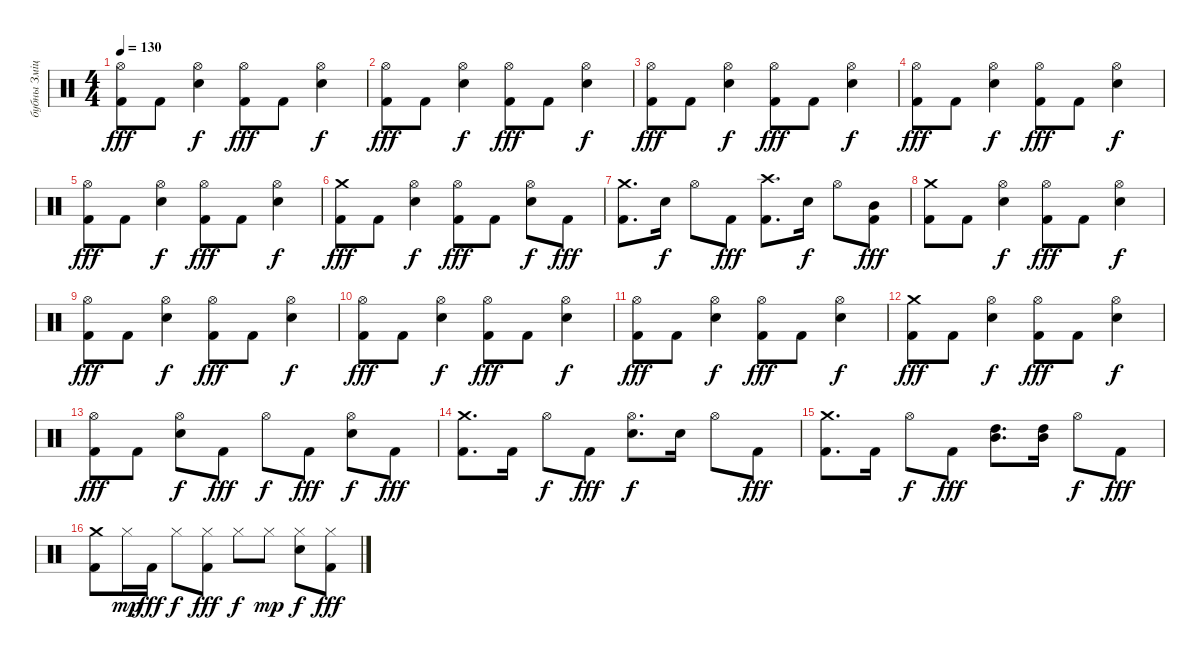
\track ("бубны Змiцер" "бубны Змiц") {instrument percussion}
\staff {score}
\articulation defaults
\ts (4 4)
\tempo 130
\clef neutral
\ks c
("Hi-Hat (open)" "Kick (hit) 2").8{dy fff} "Kick (hit) 2".8 ("Hi-Hat (open)" "Electric Snare (hit)").4{dy f} ("Hi-Hat (open)" "Kick (hit) 2").8{dy fff} "Kick (hit) 2".8 ("Hi-Hat (open)" "Electric Snare (hit)").4{dy f} |
("Hi-Hat (open)" "Kick (hit) 2").8{dy fff} "Kick (hit) 2".8 ("Hi-Hat (open)" "Electric Snare (hit)").4{dy f} ("Hi-Hat (open)" "Kick (hit) 2").8{dy fff} "Kick (hit) 2".8 ("Hi-Hat (open)" "Electric Snare (hit)").4{dy f} |
("Hi-Hat (open)" "Kick (hit) 2").8{dy fff} "Kick (hit) 2".8 ("Hi-Hat (open)" "Electric Snare (hit)").4{dy f} ("Hi-Hat (open)" "Kick (hit) 2").8{dy fff} "Kick (hit) 2".8 ("Hi-Hat (open)" "Electric Snare (hit)").4{dy f} |
("Hi-Hat (open)" "Kick (hit) 2").8{dy fff} "Kick (hit) 2".8 ("Hi-Hat (open)" "Electric Snare (hit)").4{dy f} ("Hi-Hat (open)" "Kick (hit) 2").8{dy fff} "Kick (hit) 2".8 ("Hi-Hat (open)" "Electric Snare (hit)").4{dy f} |
("Hi-Hat (open)" "Kick (hit) 2").8{dy fff} "Kick (hit) 2".8 ("Hi-Hat (open)" "Electric Snare (hit)").4{dy f} ("Hi-Hat (open)" "Kick (hit) 2").8{dy fff} "Kick (hit) 2".8 ("Hi-Hat (open)" "Electric Snare (hit)").4{dy f} |
("Crash medium (hit)" "Kick (hit) 2").8{dy fff} "Kick (hit) 2".8 ("Hi-Hat (open)" "Electric Snare (hit)").4{dy f} ("Hi-Hat (open)" "Kick (hit) 2").8{dy fff} "Kick (hit) 2".8 ("Hi-Hat (open)" "Electric Snare (hit)").8{dy f} "Kick (hit) 2".8{dy fff} |
("Crash medium (hit)" "Kick (hit) 2").8{d} "Electric Snare (hit)".16{dy f} "Hi-Hat (open)".8 "Kick (hit) 2".8{dy fff} ("Crash high (hit)" "Kick (hit) 2").8{d} "Electric Snare (hit)".16{dy f} "Hi-Hat (open)".8 ("Mid Tom (hit)" "Kick (hit) 2").8{dy fff} |
("Crash medium (hit)" "Kick (hit) 2").8 "Kick (hit) 2".8 ("Hi-Hat (open)" "Electric Snare (hit)").4{dy f} ("Hi-Hat (open)" "Kick (hit) 2").8{dy fff} "Kick (hit) 2".8 ("Hi-Hat (open)" "Electric Snare (hit)").4{dy f} |
("Hi-Hat (open)" "Kick (hit) 2").8{dy fff} "Kick (hit) 2".8 ("Hi-Hat (open)" "Electric Snare (hit)").4{dy f} ("Hi-Hat (open)" "Kick (hit) 2").8{dy fff} "Kick (hit) 2".8 ("Hi-Hat (open)" "Electric Snare (hit)").4{dy f} |
("Hi-Hat (open)" "Kick (hit) 2").8{dy fff} "Kick (hit) 2".8 ("Hi-Hat (open)" "Electric Snare (hit)").4{dy f} ("Hi-Hat (open)" "Kick (hit) 2").8{dy fff} "Kick (hit) 2".8 ("Hi-Hat (open)" "Electric Snare (hit)").4{dy f} |
("Hi-Hat (open)" "Kick (hit) 2").8{dy fff} "Kick (hit) 2".8 ("Hi-Hat (open)" "Electric Snare (hit)").4{dy f} ("Hi-Hat (open)" "Kick (hit) 2").8{dy fff} "Kick (hit) 2".8 ("Hi-Hat (open)" "Electric Snare (hit)").4{dy f} |
("Crash medium (hit)" "Kick (hit) 2").8{dy fff} "Kick (hit) 2".8 ("Hi-Hat (open)" "Electric Snare (hit)").4{dy f} ("Hi-Hat (open)" "Kick (hit) 2").8{dy fff} "Kick (hit) 2".8 ("Hi-Hat (open)" "Electric Snare (hit)").4{dy f} |
("Hi-Hat (open)" "Kick (hit) 2").8{dy fff} "Kick (hit) 2".8 ("Hi-Hat (open)" "Electric Snare (hit)").8{dy f} "Kick (hit) 2".8{dy fff} "Hi-Hat (open)".8{dy f} "Kick (hit) 2".8{dy fff} ("Hi-Hat (open)" "Electric Snare (hit)").8{dy f} "Kick (hit) 2".8{dy fff} |
("Crash medium (hit)" "Kick (hit) 2").8{d} "Kick (hit) 2".16 "Hi-Hat (open)".8{dy f} "Kick (hit) 2".8{dy fff} ("Hi-Hat (open)" "Electric Snare (hit)").8{d dy f} "Electric Snare (hit)".16 "Hi-Hat (open)".8 "Kick (hit) 2".8{dy fff} |
("Crash medium (hit)" "Kick (hit) 2").8{d} "Kick (hit) 2".16 "Hi-Hat (open)".8{dy f} "Kick (hit) 2".8{dy fff} ("Mid Tom (hit)" "High Tom (hit)").8{d} ("Mid Tom (hit)" "High Tom (hit)").16 "Hi-Hat (open)".8{dy f} "Kick (hit) 2".8{dy fff} |
("Crash medium (hit)" "Kick (hit) 2").8 "Hi-Hat (closed)".16{dy mp} "Kick (hit) 2".16{dy fff} "Hi-Hat (closed)".8{dy f} ("Hi-Hat (closed)" "Kick (hit) 2").8{dy fff} "Hi-Hat (closed)".8{dy f} "Hi-Hat (closed)".8{dy mp} ("Hi-Hat (closed)" "Electric Snare (hit)").8{dy f} ("Hi-Hat (closed)" "Kick (hit) 2").8{dy fff}
